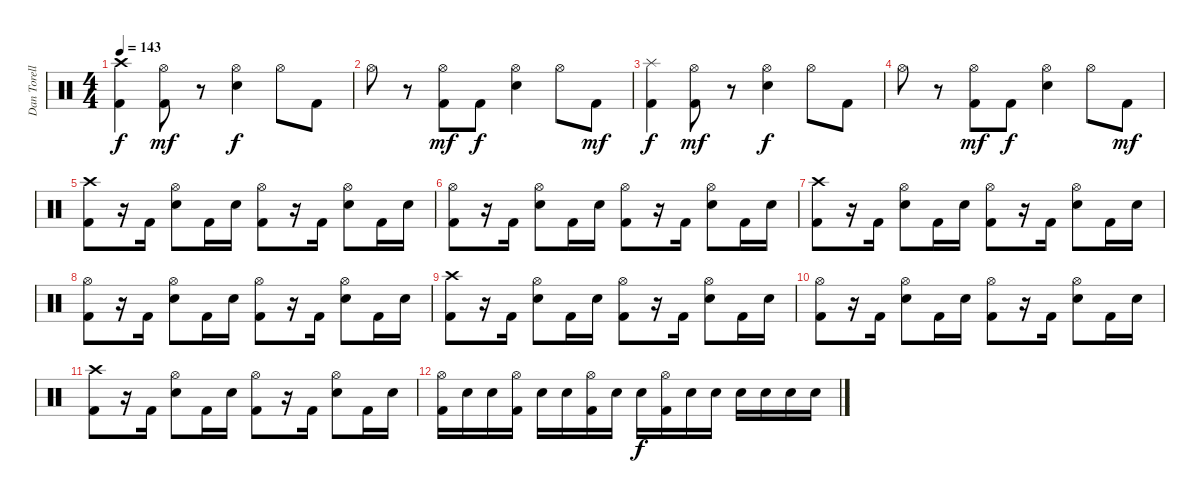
\track ("Dan Torelli" "Dan Torell") {instrument percussion}
\staff {score}
\articulation defaults
\ts (4 4)
\tempo 143
\clef neutral
\ks c
("Crash high (hit)" "Kick (hit) 2").4{dy f} ("Hi-Hat (open)" "Kick (hit) 2").8{dy mf} r.8 ("Hi-Hat (open)" "Snare (hit) 2").4{dy f} "Hi-Hat (open)".8 "Kick (hit) 2".8 |
"Hi-Hat (open)".8 r.8 ("Hi-Hat (open)" "Kick (hit) 2").8{dy mf} "Kick (hit) 2".8{dy f} ("Hi-Hat (open)" "Snare (hit) 2").4 "Hi-Hat (open)".8 "Kick (hit) 2".8{dy mf} |
("Splash (hit)" "Kick (hit) 2").4{dy f} ("Hi-Hat (open)" "Kick (hit) 2").8{dy mf} r.8 ("Hi-Hat (open)" "Snare (hit) 2").4{dy f} "Hi-Hat (open)".8 "Kick (hit) 2".8 |
"Hi-Hat (open)".8 r.8 ("Hi-Hat (open)" "Kick (hit) 2").8{dy mf} "Kick (hit) 2".8{dy f} ("Hi-Hat (open)" "Snare (hit) 2").4 "Hi-Hat (open)".8 "Kick (hit) 2".8{dy mf} |
("Crash high (hit)" "Kick (hit) 2").8 r.16 "Kick (hit) 2".16 ("Hi-Hat (open)" "Snare (hit) 2").8 "Kick (hit) 2".16 "Snare (hit) 2".16 ("Hi-Hat (open)" "Kick (hit) 2").8 r.16 "Kick (hit) 2".16 ("Hi-Hat (open)" "Snare (hit) 2").8 "Kick (hit) 2".16 "Snare (hit) 2".16 |
("Hi-Hat (open)" "Kick (hit) 2").8 r.16 "Kick (hit) 2".16 ("Hi-Hat (open)" "Snare (hit) 2").8 "Kick (hit) 2".16 "Snare (hit) 2".16 ("Hi-Hat (open)" "Kick (hit) 2").8 r.16 "Kick (hit) 2".16 ("Hi-Hat (open)" "Snare (hit) 2").8 "Kick (hit) 2".16 "Snare (hit) 2".16 |
("Crash high (hit)" "Kick (hit) 2").8 r.16 "Kick (hit) 2".16 ("Hi-Hat (open)" "Snare (hit) 2").8 "Kick (hit) 2".16 "Snare (hit) 2".16 ("Hi-Hat (open)" "Kick (hit) 2").8 r.16 "Kick (hit) 2".16 ("Hi-Hat (open)" "Snare (hit) 2").8 "Kick (hit) 2".16 "Snare (hit) 2".16 |
("Hi-Hat (open)" "Kick (hit) 2").8 r.16 "Kick (hit) 2".16 ("Hi-Hat (open)" "Snare (hit) 2").8 "Kick (hit) 2".16 "Snare (hit) 2".16 ("Hi-Hat (open)" "Kick (hit) 2").8 r.16 "Kick (hit) 2".16 ("Hi-Hat (open)" "Snare (hit) 2").8 "Kick (hit) 2".16 "Snare (hit) 2".16 |
("Crash high (hit)" "Kick (hit) 2").8 r.16 "Kick (hit) 2".16 ("Hi-Hat (open)" "Snare (hit) 2").8 "Kick (hit) 2".16 "Snare (hit) 2".16 ("Hi-Hat (open)" "Kick (hit) 2").8 r.16 "Kick (hit) 2".16 ("Hi-Hat (open)" "Snare (hit) 2").8 "Kick (hit) 2".16 "Snare (hit) 2".16 |
("Hi-Hat (open)" "Kick (hit) 2").8 r.16 "Kick (hit) 2".16 ("Hi-Hat (open)" "Snare (hit) 2").8 "Kick (hit) 2".16 "Snare (hit) 2".16 ("Hi-Hat (open)" "Kick (hit) 2").8 r.16 "Kick (hit) 2".16 ("Hi-Hat (open)" "Snare (hit) 2").8 "Kick (hit) 2".16 "Snare (hit) 2".16 |
("Crash high (hit)" "Kick (hit) 2").8 r.16 "Kick (hit) 2".16 ("Hi-Hat (open)" "Snare (hit) 2").8 "Kick (hit) 2".16 "Snare (hit) 2".16 ("Hi-Hat (open)" "Kick (hit) 2").8 r.16 "Kick (hit) 2".16 ("Hi-Hat (open)" "Snare (hit) 2").8 "Kick (hit) 2".16 "Snare (hit) 2".16 |
("Hi-Hat (open)" "Kick (hit) 2").16 "Snare (hit) 2".16 "Snare (hit) 2".16 ("Hi-Hat (open)" "Kick (hit) 2").16 "Snare (hit) 2".16 "Snare (hit) 2".16 ("Hi-Hat (open)" "Kick (hit) 2").16 "Snare (hit) 2".16 "Snare (hit) 2".16{dy f} ("Hi-Hat (open)" "Kick (hit) 2").16 "Snare (hit) 2".16 "Snare (hit) 2".16 "Snare (hit) 2".16 "Snare (hit) 2".16 "Snare (hit) 2".16 "Snare (hit) 2".16
